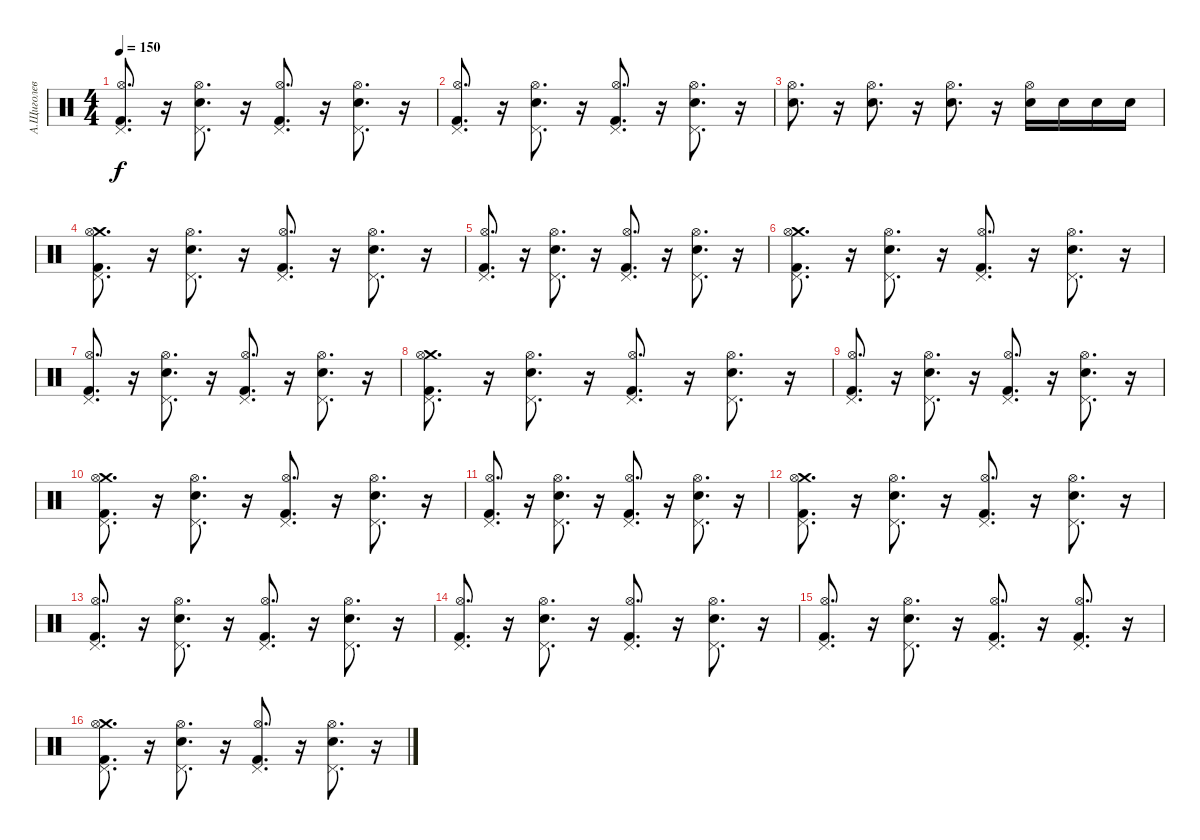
\track ("А.Щиголев" "А.Щиголев") {instrument percussion}
\staff {score}
\articulation defaults
\ts (4 4)
\tempo 150
\clef neutral
\ks c
("Kick (hit) 2" "Hi-Hat (open)" "Pedal Hi-Hat (hit)").8{d dy f} r.16 ("Snare (hit) 2" "Hi-Hat (open)" "Pedal Hi-Hat (hit)").8{d} r.16 ("Kick (hit) 2" "Hi-Hat (open)" "Pedal Hi-Hat (hit)").8{d} r.16 ("Snare (hit) 2" "Hi-Hat (open)" "Pedal Hi-Hat (hit)").8{d} r.16 |
("Kick (hit) 2" "Hi-Hat (open)" "Pedal Hi-Hat (hit)").8{d} r.16 ("Snare (hit) 2" "Hi-Hat (open)" "Pedal Hi-Hat (hit)").8{d} r.16 ("Kick (hit) 2" "Hi-Hat (open)" "Pedal Hi-Hat (hit)").8{d} r.16 ("Snare (hit) 2" "Hi-Hat (open)" "Pedal Hi-Hat (hit)").8{d} r.16 |
("Snare (hit) 2" "Hi-Hat (open)").8{d} r.16 ("Snare (hit) 2" "Hi-Hat (open)").8{d} r.16 ("Snare (hit) 2" "Hi-Hat (open)").8{d} r.16 ("Snare (hit) 2" "Hi-Hat (open)").16 "Snare (hit) 2".16 "Snare (hit) 2".16 "Snare (hit) 2".16 |
("Crash medium (hit)" "Kick (hit) 2" "Hi-Hat (open)" "Pedal Hi-Hat (hit)").8{d} r.16 ("Snare (hit) 2" "Hi-Hat (open)" "Pedal Hi-Hat (hit)").8{d} r.16 ("Kick (hit) 2" "Hi-Hat (open)" "Pedal Hi-Hat (hit)").8{d} r.16 ("Snare (hit) 2" "Hi-Hat (open)" "Pedal Hi-Hat (hit)").8{d} r.16 |
("Kick (hit) 2" "Hi-Hat (open)" "Pedal Hi-Hat (hit)").8{d} r.16 ("Snare (hit) 2" "Hi-Hat (open)" "Pedal Hi-Hat (hit)").8{d} r.16 ("Kick (hit) 2" "Hi-Hat (open)" "Pedal Hi-Hat (hit)").8{d} r.16 ("Snare (hit) 2" "Hi-Hat (open)" "Pedal Hi-Hat (hit)").8{d} r.16 |
("Crash medium (hit)" "Kick (hit) 2" "Hi-Hat (open)" "Pedal Hi-Hat (hit)").8{d} r.16 ("Snare (hit) 2" "Hi-Hat (open)" "Pedal Hi-Hat (hit)").8{d} r.16 ("Kick (hit) 2" "Hi-Hat (open)" "Pedal Hi-Hat (hit)").8{d} r.16 ("Snare (hit) 2" "Hi-Hat (open)" "Pedal Hi-Hat (hit)").8{d} r.16 |
("Kick (hit) 2" "Hi-Hat (open)" "Pedal Hi-Hat (hit)").8{d} r.16 ("Snare (hit) 2" "Hi-Hat (open)" "Pedal Hi-Hat (hit)").8{d} r.16 ("Kick (hit) 2" "Hi-Hat (open)" "Pedal Hi-Hat (hit)").8{d} r.16 ("Snare (hit) 2" "Hi-Hat (open)" "Pedal Hi-Hat (hit)").8{d} r.16 |
("Crash medium (hit)" "Kick (hit) 2" "Hi-Hat (open)" "Pedal Hi-Hat (hit)").8{d} r.16 ("Snare (hit) 2" "Hi-Hat (open)" "Pedal Hi-Hat (hit)").8{d} r.16 ("Kick (hit) 2" "Hi-Hat (open)" "Pedal Hi-Hat (hit)").8{d} r.16 ("Snare (hit) 2" "Hi-Hat (open)" "Pedal Hi-Hat (hit)").8{d} r.16 |
("Kick (hit) 2" "Hi-Hat (open)" "Pedal Hi-Hat (hit)").8{d} r.16 ("Snare (hit) 2" "Hi-Hat (open)" "Pedal Hi-Hat (hit)").8{d} r.16 ("Kick (hit) 2" "Hi-Hat (open)" "Pedal Hi-Hat (hit)").8{d} r.16 ("Snare (hit) 2" "Hi-Hat (open)" "Pedal Hi-Hat (hit)").8{d} r.16 |
("Crash medium (hit)" "Kick (hit) 2" "Hi-Hat (open)" "Pedal Hi-Hat (hit)").8{d} r.16 ("Snare (hit) 2" "Hi-Hat (open)" "Pedal Hi-Hat (hit)").8{d} r.16 ("Kick (hit) 2" "Hi-Hat (open)" "Pedal Hi-Hat (hit)").8{d} r.16 ("Snare (hit) 2" "Hi-Hat (open)" "Pedal Hi-Hat (hit)").8{d} r.16 |
("Kick (hit) 2" "Hi-Hat (open)" "Pedal Hi-Hat (hit)").8{d} r.16 ("Snare (hit) 2" "Hi-Hat (open)" "Pedal Hi-Hat (hit)").8{d} r.16 ("Kick (hit) 2" "Hi-Hat (open)" "Pedal Hi-Hat (hit)").8{d} r.16 ("Snare (hit) 2" "Hi-Hat (open)" "Pedal Hi-Hat (hit)").8{d} r.16 |
("Crash medium (hit)" "Kick (hit) 2" "Hi-Hat (open)" "Pedal Hi-Hat (hit)").8{d} r.16 ("Snare (hit) 2" "Hi-Hat (open)" "Pedal Hi-Hat (hit)").8{d} r.16 ("Kick (hit) 2" "Hi-Hat (open)" "Pedal Hi-Hat (hit)").8{d} r.16 ("Snare (hit) 2" "Hi-Hat (open)" "Pedal Hi-Hat (hit)").8{d} r.16 |
("Kick (hit) 2" "Hi-Hat (open)" "Pedal Hi-Hat (hit)").8{d} r.16 ("Snare (hit) 2" "Hi-Hat (open)" "Pedal Hi-Hat (hit)").8{d} r.16 ("Kick (hit) 2" "Hi-Hat (open)" "Pedal Hi-Hat (hit)").8{d} r.16 ("Snare (hit) 2" "Hi-Hat (open)" "Pedal Hi-Hat (hit)").8{d} r.16 |
("Kick (hit) 2" "Hi-Hat (open)" "Pedal Hi-Hat (hit)").8{d} r.16 ("Snare (hit) 2" "Hi-Hat (open)" "Pedal Hi-Hat (hit)").8{d} r.16 ("Kick (hit) 2" "Hi-Hat (open)" "Pedal Hi-Hat (hit)").8{d} r.16 ("Snare (hit) 2" "Hi-Hat (open)" "Pedal Hi-Hat (hit)").8{d} r.16 |
("Kick (hit) 2" "Hi-Hat (open)" "Pedal Hi-Hat (hit)").8{d} r.16 ("Snare (hit) 2" "Hi-Hat (open)" "Pedal Hi-Hat (hit)").8{d} r.16 ("Kick (hit) 2" "Hi-Hat (open)" "Pedal Hi-Hat (hit)").8{d} r.16 ("Kick (hit) 2" "Hi-Hat (open)" "Pedal Hi-Hat (hit)").8{d} r.16 |
("Crash medium (hit)" "Kick (hit) 2" "Hi-Hat (open)" "Pedal Hi-Hat (hit)").8{d} r.16 ("Snare (hit) 2" "Hi-Hat (open)" "Pedal Hi-Hat (hit)").8{d} r.16 ("Kick (hit) 2" "Hi-Hat (open)" "Pedal Hi-Hat (hit)").8{d} r.16 ("Snare (hit) 2" "Hi-Hat (open)" "Pedal Hi-Hat (hit)").8{d} r.16
